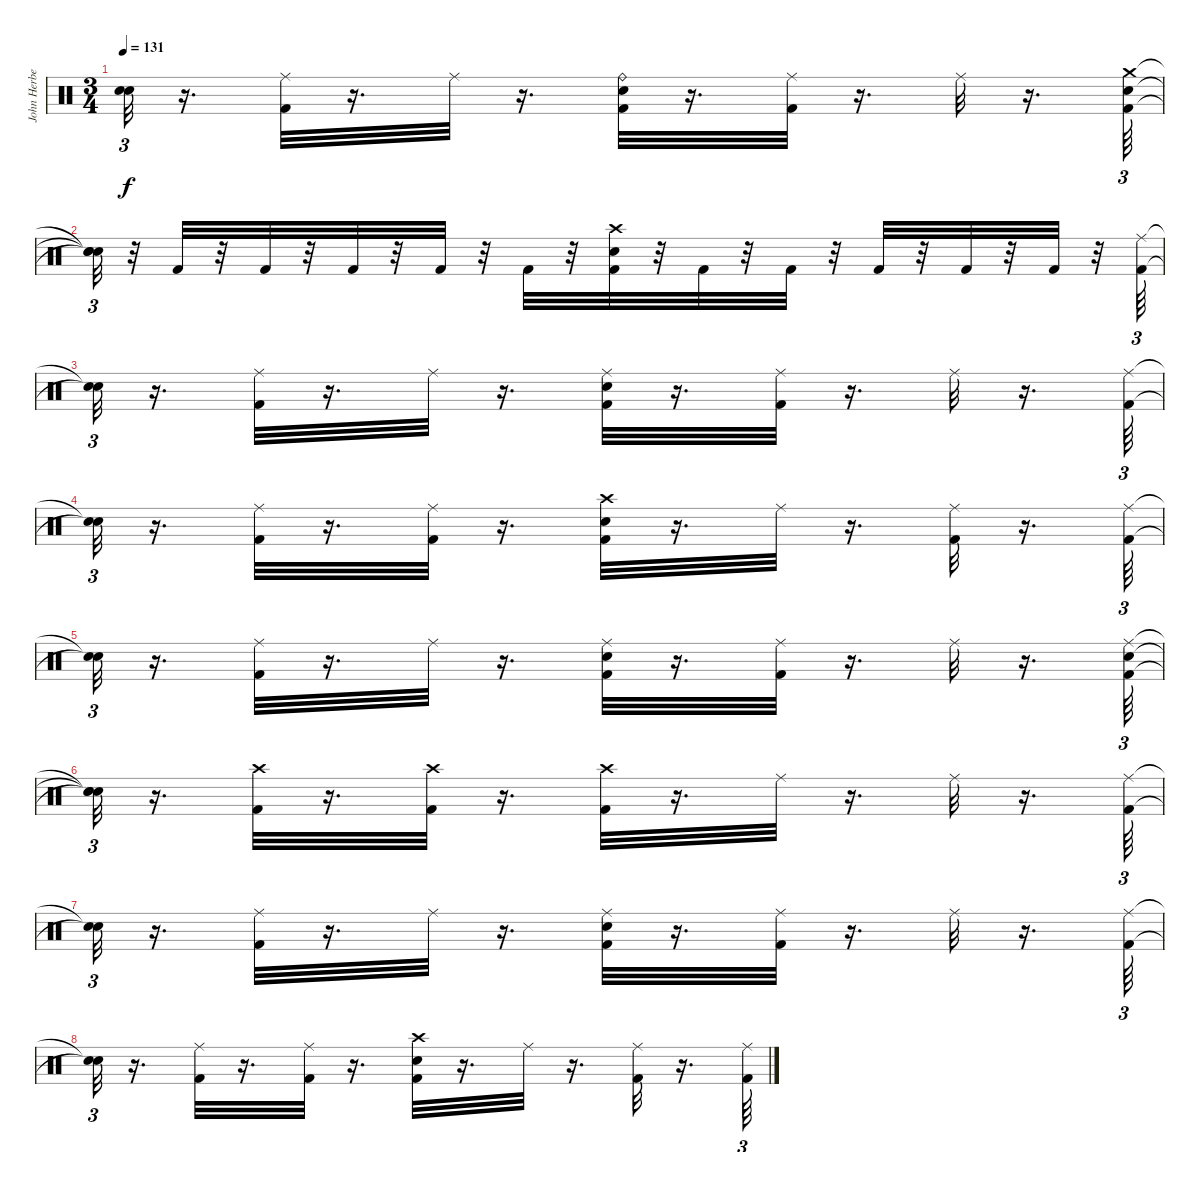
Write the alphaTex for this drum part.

\track ("John Herbert" "John Herbe") {instrument percussion}
\staff {score}
\articulation defaults
\ts (3 4)
\tempo 131
\clef neutral
\ks c
("Snare (hit)"{t} "Snare (hit)"{t}).32{tu (3 2) dy f} r.16{d} ("Kick (hit) 2" "Ride (middle)").32 r.16{d} "Ride (middle)".32 r.16{d} ("Kick (hit) 2" "Snare (hit) 2" "Ride (bell)").32 r.16{d} ("Kick (hit) 2" "Ride (middle)").32 r.16{d} "Ride (middle)".32 r.16{d} ("Snare (hit) 2" "Kick (hit) 2" "Crash medium (hit)").64{tu (3 2)} |
("Snare (hit)"{t} "Snare (hit)"{t} "Snare (hit)"{t}).32{tu (3 2)} r.32 "Kick (hit) 2".32 r.32 "Kick (hit) 2".32 r.32 "Kick (hit) 2".32 r.32 "Kick (hit) 2".32 r.32 "Kick (hit) 2".32 r.32 ("Crash high (hit)" "Snare (hit) 2" "Kick (hit) 2").32 r.32 "Kick (hit) 2".32 r.32 "Kick (hit) 2".32 r.32 "Kick (hit) 2".32 r.32 "Kick (hit) 2".32 r.32 "Kick (hit) 2".32 r.32 ("Ride (middle)" "Kick (hit) 2").64{tu (3 2)} |
("Snare (hit)"{t} "Snare (hit)"{t}).32{tu (3 2)} r.16{d} ("Ride (middle)" "Kick (hit) 2").32 r.16{d} "Ride (middle)".32 r.16{d} ("Kick (hit) 2" "Ride (middle)" "Snare (hit) 2").32 r.16{d} ("Ride (middle)" "Kick (hit) 2").32 r.16{d} "Ride (middle)".32 r.16{d} ("Kick (hit) 2" "Ride (middle)").64{tu (3 2)} |
("Snare (hit)"{t} "Snare (hit)"{t}).32{tu (3 2)} r.16{d} ("Kick (hit) 2" "Ride (middle)").32 r.16{d} ("Kick (hit) 2" "Ride (middle)").32 r.16{d} ("Kick (hit) 2" "Snare (hit) 2" "Crash high (hit)").32 r.16{d} "Ride (middle)".32 r.16{d} ("Kick (hit) 2" "Ride (middle)").32 r.16{d} ("Ride (middle)" "Kick (hit) 2").64{tu (3 2)} |
("Snare (hit)"{t} "Snare (hit)"{t}).32{tu (3 2)} r.16{d} ("Ride (middle)" "Kick (hit) 2").32 r.16{d} "Ride (middle)".32 r.16{d} ("Kick (hit) 2" "Ride (middle)" "Snare (hit) 2").32 r.16{d} ("Ride (middle)" "Kick (hit) 2").32 r.16{d} "Ride (middle)".32 r.16{d} ("Snare (hit) 2" "Kick (hit) 2" "Ride (middle)").64{tu (3 2)} |
("Snare (hit)"{t} "Snare (hit)"{t} "Snare (hit)"{t}).32{tu (3 2)} r.16{d} ("Kick (hit) 2" "Crash high (hit)").32 r.16{d} ("Kick (hit) 2" "Crash high (hit)").32 r.16{d} ("Kick (hit) 2" "Crash high (hit)").32 r.16{d} "Ride (middle)".32 r.16{d} "Ride (middle)".32 r.16{d} ("Ride (middle)" "Kick (hit) 2").64{tu (3 2)} |
("Snare (hit)"{t} "Snare (hit)"{t}).32{tu (3 2)} r.16{d} ("Ride (middle)" "Kick (hit) 2").32 r.16{d} "Ride (middle)".32 r.16{d} ("Kick (hit) 2" "Ride (middle)" "Snare (hit) 2").32 r.16{d} ("Ride (middle)" "Kick (hit) 2").32 r.16{d} "Ride (middle)".32 r.16{d} ("Kick (hit) 2" "Ride (middle)").64{tu (3 2)} |
("Snare (hit)"{t} "Snare (hit)"{t}).32{tu (3 2)} r.16{d} ("Kick (hit) 2" "Ride (middle)").32 r.16{d} ("Kick (hit) 2" "Ride (middle)").32 r.16{d} ("Kick (hit) 2" "Snare (hit) 2" "Crash high (hit)").32 r.16{d} "Ride (middle)".32 r.16{d} ("Kick (hit) 2" "Ride (middle)").32 r.16{d} ("Ride (middle)" "Kick (hit) 2").64{tu (3 2)}
